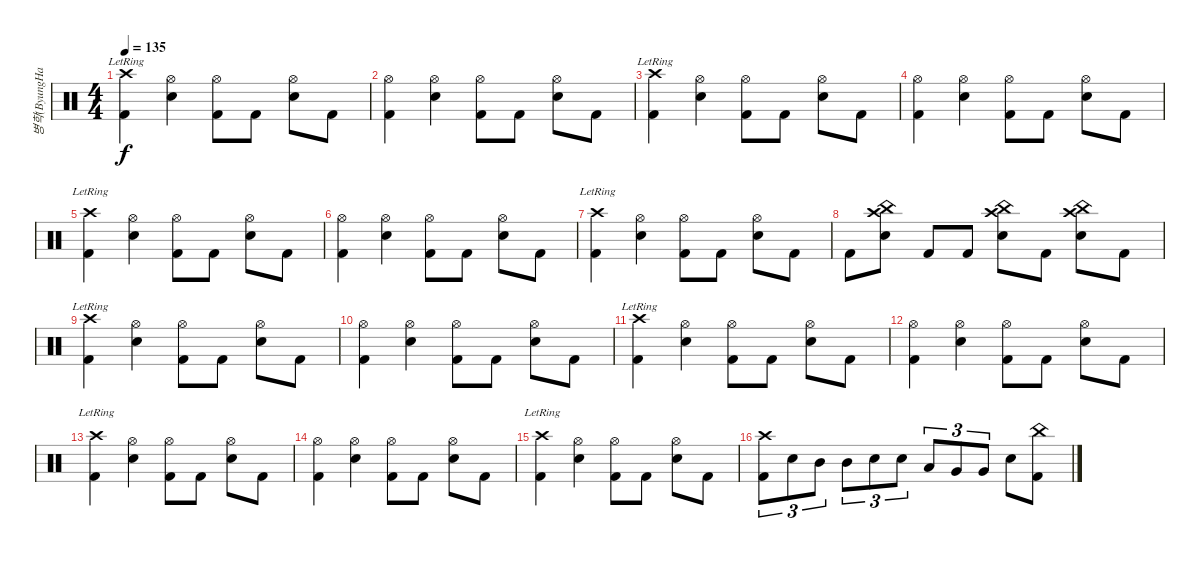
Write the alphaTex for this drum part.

\track ("병학(ByungHak)" "병학(ByungHa") {instrument percussion}
\staff {score}
\articulation defaults
\ts (4 4)
\tempo 135
\clef neutral
\ks c
("Crash high (hit)"{lr} "Kick (hit) 2").4{dy f} ("Hi-Hat (open)" "Snare (hit) 2").4 ("Hi-Hat (open)" "Kick (hit) 2").8 "Kick (hit) 2".8 ("Hi-Hat (open)" "Snare (hit) 2").8 "Kick (hit) 2".8 |
("Hi-Hat (open)" "Kick (hit) 2").4 ("Hi-Hat (open)" "Snare (hit) 2").4 ("Hi-Hat (open)" "Kick (hit) 2").8 "Kick (hit) 2".8 ("Hi-Hat (open)" "Snare (hit) 2").8 "Kick (hit) 2".8 |
("Crash high (hit)"{lr} "Kick (hit) 2").4 ("Hi-Hat (open)" "Snare (hit) 2").4 ("Hi-Hat (open)" "Kick (hit) 2").8 "Kick (hit) 2".8 ("Hi-Hat (open)" "Snare (hit) 2").8 "Kick (hit) 2".8 |
("Hi-Hat (open)" "Kick (hit) 2").4 ("Hi-Hat (open)" "Snare (hit) 2").4 ("Hi-Hat (open)" "Kick (hit) 2").8 "Kick (hit) 2".8 ("Hi-Hat (open)" "Snare (hit) 2").8 "Kick (hit) 2".8 |
("Crash high (hit)"{lr} "Kick (hit) 2").4 ("Hi-Hat (open)" "Snare (hit) 2").4 ("Hi-Hat (open)" "Kick (hit) 2").8 "Kick (hit) 2".8 ("Hi-Hat (open)" "Snare (hit) 2").8 "Kick (hit) 2".8 |
("Hi-Hat (open)" "Kick (hit) 2").4 ("Hi-Hat (open)" "Snare (hit) 2").4 ("Hi-Hat (open)" "Kick (hit) 2").8 "Kick (hit) 2".8 ("Hi-Hat (open)" "Snare (hit) 2").8 "Kick (hit) 2".8 |
("Crash high (hit)"{lr} "Kick (hit) 2").4 ("Hi-Hat (open)" "Snare (hit) 2").4 ("Hi-Hat (open)" "Kick (hit) 2").8 "Kick (hit) 2".8 ("Hi-Hat (open)" "Snare (hit) 2").8 "Kick (hit) 2".8 |
"Kick (hit) 2".8 ("Crash high (hit)" "China (hit)" "Snare (hit) 2").8 "Kick (hit) 2".8 "Kick (hit) 2".8 ("Crash high (hit)" "China (hit)" "Snare (hit) 2").8 "Kick (hit) 2".8 ("Crash high (hit)" "China (hit)" "Snare (hit) 2").8 "Kick (hit) 2".8 |
("Crash high (hit)"{lr} "Kick (hit) 2").4 ("Hi-Hat (open)" "Snare (hit) 2").4 ("Hi-Hat (open)" "Kick (hit) 2").8 "Kick (hit) 2".8 ("Hi-Hat (open)" "Snare (hit) 2").8 "Kick (hit) 2".8 |
("Hi-Hat (open)" "Kick (hit) 2").4 ("Hi-Hat (open)" "Snare (hit) 2").4 ("Hi-Hat (open)" "Kick (hit) 2").8 "Kick (hit) 2".8 ("Hi-Hat (open)" "Snare (hit) 2").8 "Kick (hit) 2".8 |
("Crash high (hit)"{lr} "Kick (hit) 2").4 ("Hi-Hat (open)" "Snare (hit) 2").4 ("Hi-Hat (open)" "Kick (hit) 2").8 "Kick (hit) 2".8 ("Hi-Hat (open)" "Snare (hit) 2").8 "Kick (hit) 2".8 |
("Hi-Hat (open)" "Kick (hit) 2").4 ("Hi-Hat (open)" "Snare (hit) 2").4 ("Hi-Hat (open)" "Kick (hit) 2").8 "Kick (hit) 2".8 ("Hi-Hat (open)" "Snare (hit) 2").8 "Kick (hit) 2".8 |
("Crash high (hit)"{lr} "Kick (hit) 2").4 ("Hi-Hat (open)" "Snare (hit) 2").4 ("Hi-Hat (open)" "Kick (hit) 2").8 "Kick (hit) 2".8 ("Hi-Hat (open)" "Snare (hit) 2").8 "Kick (hit) 2".8 |
("Hi-Hat (open)" "Kick (hit) 2").4 ("Hi-Hat (open)" "Snare (hit) 2").4 ("Hi-Hat (open)" "Kick (hit) 2").8 "Kick (hit) 2".8 ("Hi-Hat (open)" "Snare (hit) 2").8 "Kick (hit) 2".8 |
("Crash high (hit)"{lr} "Kick (hit) 2").4 ("Hi-Hat (open)" "Snare (hit) 2").4 ("Hi-Hat (open)" "Kick (hit) 2").8 "Kick (hit) 2".8 ("Hi-Hat (open)" "Snare (hit) 2").8 "Kick (hit) 2".8 |
("Crash high (hit)" "Kick (hit) 2").8{tu (3 2)} "Snare (hit) 2".8{tu (3 2)} "Mid Tom (hit)".8{tu (3 2)} "Mid Tom (hit)".8{tu (3 2)} "Snare (hit) 2".8{tu (3 2)} "Snare (hit) 2".8{tu (3 2)} "Low Tom (hit)".8{tu (3 2)} "Very Low Tom (hit)".8{tu (3 2)} "Very Low Tom (hit)".8{tu (3 2)} "Snare (hit) 2".8 ("China (hit)" "Kick (hit) 2").8
